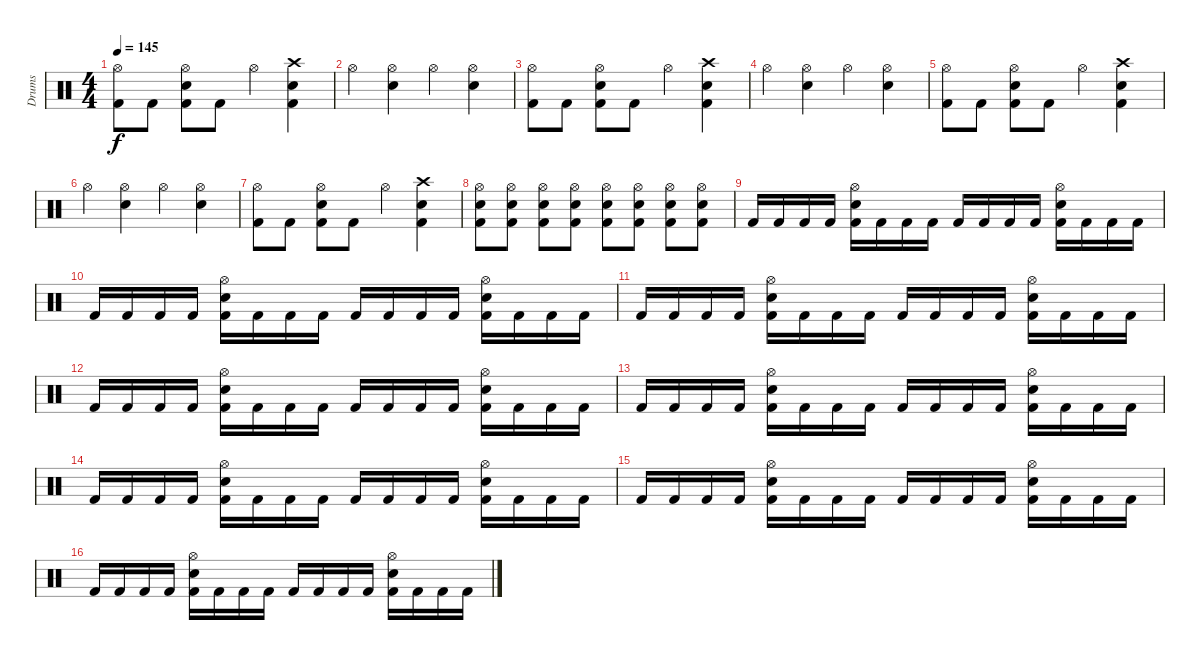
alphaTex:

\track ("Drums" "Drums") {instrument percussion}
\staff {score}
\articulation defaults
\ts (4 4)
\tempo 145
\clef neutral
\ks c
("Hi-Hat (open)" "Kick (hit) 2").8{dy f} "Kick (hit) 2".8 ("Hi-Hat (open)" "Snare (hit) 2" "Kick (hit) 2").8 "Kick (hit) 2".8 "Hi-Hat (open)".4 ("Crash high (hit)" "Snare (hit) 2" "Kick (hit) 2").4 |
"Hi-Hat (open)".4 ("Hi-Hat (open)" "Snare (hit) 2").4 "Hi-Hat (open)".4 ("Hi-Hat (open)" "Snare (hit) 2").4 |
("Hi-Hat (open)" "Kick (hit) 2").8 "Kick (hit) 2".8 ("Hi-Hat (open)" "Snare (hit) 2" "Kick (hit) 2").8 "Kick (hit) 2".8 "Hi-Hat (open)".4 ("Crash high (hit)" "Snare (hit) 2" "Kick (hit) 2").4 |
"Hi-Hat (open)".4 ("Hi-Hat (open)" "Snare (hit) 2").4 "Hi-Hat (open)".4 ("Hi-Hat (open)" "Snare (hit) 2").4 |
("Hi-Hat (open)" "Kick (hit) 2").8 "Kick (hit) 2".8 ("Hi-Hat (open)" "Snare (hit) 2" "Kick (hit) 2").8 "Kick (hit) 2".8 "Hi-Hat (open)".4 ("Crash high (hit)" "Snare (hit) 2" "Kick (hit) 2").4 |
"Hi-Hat (open)".4 ("Hi-Hat (open)" "Snare (hit) 2").4 "Hi-Hat (open)".4 ("Hi-Hat (open)" "Snare (hit) 2").4 |
("Hi-Hat (open)" "Kick (hit) 2").8 "Kick (hit) 2".8 ("Hi-Hat (open)" "Snare (hit) 2" "Kick (hit) 2").8 "Kick (hit) 2".8 "Hi-Hat (open)".4 ("Crash high (hit)" "Snare (hit) 2" "Kick (hit) 2").4 |
("Hi-Hat (open)" "Snare (hit) 2" "Kick (hit) 2").8 ("Hi-Hat (open)" "Snare (hit) 2" "Kick (hit) 2").8 ("Hi-Hat (open)" "Snare (hit) 2" "Kick (hit) 2").8 ("Hi-Hat (open)" "Snare (hit) 2" "Kick (hit) 2").8 ("Hi-Hat (open)" "Snare (hit) 2" "Kick (hit) 2").8 ("Hi-Hat (open)" "Snare (hit) 2" "Kick (hit) 2").8 ("Hi-Hat (open)" "Snare (hit) 2" "Kick (hit) 2").8 ("Hi-Hat (open)" "Snare (hit) 2" "Kick (hit) 2").8 |
"Kick (hit) 2".16 "Kick (hit) 2".16 "Kick (hit) 2".16 "Kick (hit) 2".16 ("Hi-Hat (open)" "Snare (hit) 2" "Kick (hit) 2").16 "Kick (hit) 2".16 "Kick (hit) 2".16 "Kick (hit) 2".16 "Kick (hit) 2".16 "Kick (hit) 2".16 "Kick (hit) 2".16 "Kick (hit) 2".16 ("Hi-Hat (open)" "Snare (hit) 2" "Kick (hit) 2").16 "Kick (hit) 2".16 "Kick (hit) 2".16 "Kick (hit) 2".16 |
"Kick (hit) 2".16 "Kick (hit) 2".16 "Kick (hit) 2".16 "Kick (hit) 2".16 ("Hi-Hat (open)" "Snare (hit) 2" "Kick (hit) 2").16 "Kick (hit) 2".16 "Kick (hit) 2".16 "Kick (hit) 2".16 "Kick (hit) 2".16 "Kick (hit) 2".16 "Kick (hit) 2".16 "Kick (hit) 2".16 ("Hi-Hat (open)" "Snare (hit) 2" "Kick (hit) 2").16 "Kick (hit) 2".16 "Kick (hit) 2".16 "Kick (hit) 2".16 |
"Kick (hit) 2".16 "Kick (hit) 2".16 "Kick (hit) 2".16 "Kick (hit) 2".16 ("Hi-Hat (open)" "Snare (hit) 2" "Kick (hit) 2").16 "Kick (hit) 2".16 "Kick (hit) 2".16 "Kick (hit) 2".16 "Kick (hit) 2".16 "Kick (hit) 2".16 "Kick (hit) 2".16 "Kick (hit) 2".16 ("Hi-Hat (open)" "Snare (hit) 2" "Kick (hit) 2").16 "Kick (hit) 2".16 "Kick (hit) 2".16 "Kick (hit) 2".16 |
"Kick (hit) 2".16 "Kick (hit) 2".16 "Kick (hit) 2".16 "Kick (hit) 2".16 ("Hi-Hat (open)" "Snare (hit) 2" "Kick (hit) 2").16 "Kick (hit) 2".16 "Kick (hit) 2".16 "Kick (hit) 2".16 "Kick (hit) 2".16 "Kick (hit) 2".16 "Kick (hit) 2".16 "Kick (hit) 2".16 ("Hi-Hat (open)" "Snare (hit) 2" "Kick (hit) 2").16 "Kick (hit) 2".16 "Kick (hit) 2".16 "Kick (hit) 2".16 |
"Kick (hit) 2".16 "Kick (hit) 2".16 "Kick (hit) 2".16 "Kick (hit) 2".16 ("Hi-Hat (open)" "Snare (hit) 2" "Kick (hit) 2").16 "Kick (hit) 2".16 "Kick (hit) 2".16 "Kick (hit) 2".16 "Kick (hit) 2".16 "Kick (hit) 2".16 "Kick (hit) 2".16 "Kick (hit) 2".16 ("Hi-Hat (open)" "Snare (hit) 2" "Kick (hit) 2").16 "Kick (hit) 2".16 "Kick (hit) 2".16 "Kick (hit) 2".16 |
"Kick (hit) 2".16 "Kick (hit) 2".16 "Kick (hit) 2".16 "Kick (hit) 2".16 ("Hi-Hat (open)" "Snare (hit) 2" "Kick (hit) 2").16 "Kick (hit) 2".16 "Kick (hit) 2".16 "Kick (hit) 2".16 "Kick (hit) 2".16 "Kick (hit) 2".16 "Kick (hit) 2".16 "Kick (hit) 2".16 ("Hi-Hat (open)" "Snare (hit) 2" "Kick (hit) 2").16 "Kick (hit) 2".16 "Kick (hit) 2".16 "Kick (hit) 2".16 |
"Kick (hit) 2".16 "Kick (hit) 2".16 "Kick (hit) 2".16 "Kick (hit) 2".16 ("Hi-Hat (open)" "Snare (hit) 2" "Kick (hit) 2").16 "Kick (hit) 2".16 "Kick (hit) 2".16 "Kick (hit) 2".16 "Kick (hit) 2".16 "Kick (hit) 2".16 "Kick (hit) 2".16 "Kick (hit) 2".16 ("Hi-Hat (open)" "Snare (hit) 2" "Kick (hit) 2").16 "Kick (hit) 2".16 "Kick (hit) 2".16 "Kick (hit) 2".16 |
"Kick (hit) 2".16 "Kick (hit) 2".16 "Kick (hit) 2".16 "Kick (hit) 2".16 ("Hi-Hat (open)" "Snare (hit) 2" "Kick (hit) 2").16 "Kick (hit) 2".16 "Kick (hit) 2".16 "Kick (hit) 2".16 "Kick (hit) 2".16 "Kick (hit) 2".16 "Kick (hit) 2".16 "Kick (hit) 2".16 ("Hi-Hat (open)" "Snare (hit) 2" "Kick (hit) 2").16 "Kick (hit) 2".16 "Kick (hit) 2".16 "Kick (hit) 2".16
